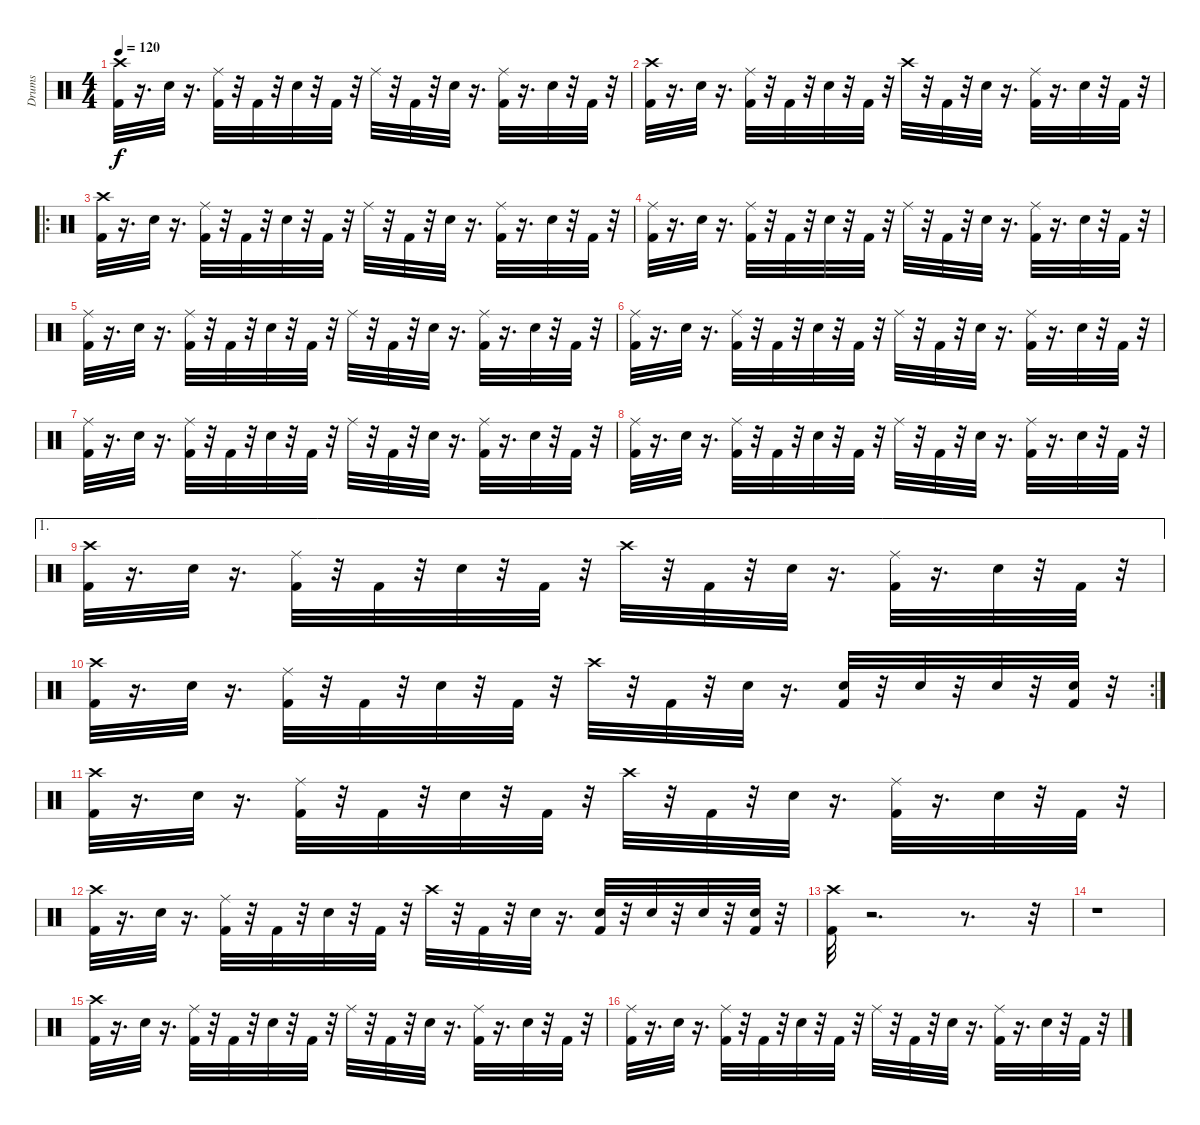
\track ("Drums" "Drums") {instrument percussion}
\staff {score}
\articulation defaults
\ts (4 4)
\tempo 120
\clef neutral
\ks c
("Crash high (hit)" "Kick (hit) 2").32{dy f} r.16{d} "Snare (hit) 2".32 r.16{d} ("Kick (hit) 2" "Ride (middle)").32 r.32 "Kick (hit) 2".32 r.32 "Snare (hit) 2".32 r.32 "Kick (hit) 2".32 r.32 "Ride (middle)".32 r.32 "Kick (hit) 2".32 r.32 "Snare (hit) 2".32 r.16{d} ("Kick (hit) 2" "Ride (middle)").32 r.16{d} "Snare (hit) 2".32 r.32 "Kick (hit) 2".32 r.32 |
("Crash high (hit)" "Kick (hit) 2").32 r.16{d} "Snare (hit) 2".32 r.16{d} ("Kick (hit) 2" "Ride (middle)").32 r.32 "Kick (hit) 2".32 r.32 "Snare (hit) 2".32 r.32 "Kick (hit) 2".32 r.32 "Crash high (hit)".32 r.32 "Kick (hit) 2".32 r.32 "Snare (hit) 2".32 r.16{d} ("Kick (hit) 2" "Ride (middle)").32 r.16{d} "Snare (hit) 2".32 r.32 "Kick (hit) 2".32 r.32 |
\ro
("Crash high (hit)" "Kick (hit) 2").32 r.16{d} "Snare (hit) 2".32 r.16{d} ("Kick (hit) 2" "Ride (middle)").32 r.32 "Kick (hit) 2".32 r.32 "Snare (hit) 2".32 r.32 "Kick (hit) 2".32 r.32 "Ride (middle)".32 r.32 "Kick (hit) 2".32 r.32 "Snare (hit) 2".32 r.16{d} ("Kick (hit) 2" "Ride (middle)").32 r.16{d} "Snare (hit) 2".32 r.32 "Kick (hit) 2".32 r.32 |
("Ride (middle)" "Kick (hit) 2").32 r.16{d} "Snare (hit) 2".32 r.16{d} ("Kick (hit) 2" "Ride (middle)").32 r.32 "Kick (hit) 2".32 r.32 "Snare (hit) 2".32 r.32 "Kick (hit) 2".32 r.32 "Ride (middle)".32 r.32 "Kick (hit) 2".32 r.32 "Snare (hit) 2".32 r.16{d} ("Kick (hit) 2" "Ride (middle)").32 r.16{d} "Snare (hit) 2".32 r.32 "Kick (hit) 2".32 r.32 |
("Ride (middle)" "Kick (hit) 2").32 r.16{d} "Snare (hit) 2".32 r.16{d} ("Kick (hit) 2" "Ride (middle)").32 r.32 "Kick (hit) 2".32 r.32 "Snare (hit) 2".32 r.32 "Kick (hit) 2".32 r.32 "Ride (middle)".32 r.32 "Kick (hit) 2".32 r.32 "Snare (hit) 2".32 r.16{d} ("Kick (hit) 2" "Ride (middle)").32 r.16{d} "Snare (hit) 2".32 r.32 "Kick (hit) 2".32 r.32 |
("Ride (middle)" "Kick (hit) 2").32 r.16{d} "Snare (hit) 2".32 r.16{d} ("Kick (hit) 2" "Ride (middle)").32 r.32 "Kick (hit) 2".32 r.32 "Snare (hit) 2".32 r.32 "Kick (hit) 2".32 r.32 "Ride (middle)".32 r.32 "Kick (hit) 2".32 r.32 "Snare (hit) 2".32 r.16{d} ("Kick (hit) 2" "Ride (middle)").32 r.16{d} "Snare (hit) 2".32 r.32 "Kick (hit) 2".32 r.32 |
("Ride (middle)" "Kick (hit) 2").32 r.16{d} "Snare (hit) 2".32 r.16{d} ("Kick (hit) 2" "Ride (middle)").32 r.32 "Kick (hit) 2".32 r.32 "Snare (hit) 2".32 r.32 "Kick (hit) 2".32 r.32 "Ride (middle)".32 r.32 "Kick (hit) 2".32 r.32 "Snare (hit) 2".32 r.16{d} ("Kick (hit) 2" "Ride (middle)").32 r.16{d} "Snare (hit) 2".32 r.32 "Kick (hit) 2".32 r.32 |
("Ride (middle)" "Kick (hit) 2").32 r.16{d} "Snare (hit) 2".32 r.16{d} ("Kick (hit) 2" "Ride (middle)").32 r.32 "Kick (hit) 2".32 r.32 "Snare (hit) 2".32 r.32 "Kick (hit) 2".32 r.32 "Ride (middle)".32 r.32 "Kick (hit) 2".32 r.32 "Snare (hit) 2".32 r.16{d} ("Kick (hit) 2" "Ride (middle)").32 r.16{d} "Snare (hit) 2".32 r.32 "Kick (hit) 2".32 r.32 |
\ae 1
("Crash high (hit)" "Kick (hit) 2").32 r.16{d} "Snare (hit) 2".32 r.16{d} ("Kick (hit) 2" "Ride (middle)").32 r.32 "Kick (hit) 2".32 r.32 "Snare (hit) 2".32 r.32 "Kick (hit) 2".32 r.32 "Crash high (hit)".32 r.32 "Kick (hit) 2".32 r.32 "Snare (hit) 2".32 r.16{d} ("Kick (hit) 2" "Ride (middle)").32 r.16{d} "Snare (hit) 2".32 r.32 "Kick (hit) 2".32 r.32 |
\rc 2
("Crash high (hit)" "Kick (hit) 2").32 r.16{d} "Snare (hit) 2".32 r.16{d} ("Kick (hit) 2" "Ride (middle)").32 r.32 "Kick (hit) 2".32 r.32 "Snare (hit) 2".32 r.32 "Kick (hit) 2".32 r.32 "Crash high (hit)".32 r.32 "Kick (hit) 2".32 r.32 "Snare (hit) 2".32 r.16{d} ("Snare (hit) 2" "Kick (hit) 2").32 r.32 "Snare (hit) 2".32 r.32 "Snare (hit) 2".32 r.32 ("Snare (hit) 2" "Kick (hit) 2").32 r.32 |
("Crash high (hit)" "Kick (hit) 2").32 r.16{d} "Snare (hit) 2".32 r.16{d} ("Kick (hit) 2" "Ride (middle)").32 r.32 "Kick (hit) 2".32 r.32 "Snare (hit) 2".32 r.32 "Kick (hit) 2".32 r.32 "Crash high (hit)".32 r.32 "Kick (hit) 2".32 r.32 "Snare (hit) 2".32 r.16{d} ("Kick (hit) 2" "Ride (middle)").32 r.16{d} "Snare (hit) 2".32 r.32 "Kick (hit) 2".32 r.32 |
("Crash high (hit)" "Kick (hit) 2").32 r.16{d} "Snare (hit) 2".32 r.16{d} ("Kick (hit) 2" "Ride (middle)").32 r.32 "Kick (hit) 2".32 r.32 "Snare (hit) 2".32 r.32 "Kick (hit) 2".32 r.32 "Crash high (hit)".32 r.32 "Kick (hit) 2".32 r.32 "Snare (hit) 2".32 r.16{d} ("Snare (hit) 2" "Kick (hit) 2").32 r.32 "Snare (hit) 2".32 r.32 "Snare (hit) 2".32 r.32 ("Snare (hit) 2" "Kick (hit) 2").32 r.32 |
("Crash high (hit)" "Kick (hit) 2").32 r.2{d} r.8{d} r.32 |
r.1 |
("Crash high (hit)" "Kick (hit) 2").32 r.16{d} "Snare (hit) 2".32 r.16{d} ("Kick (hit) 2" "Ride (middle)").32 r.32 "Kick (hit) 2".32 r.32 "Snare (hit) 2".32 r.32 "Kick (hit) 2".32 r.32 "Ride (middle)".32 r.32 "Kick (hit) 2".32 r.32 "Snare (hit) 2".32 r.16{d} ("Kick (hit) 2" "Ride (middle)").32 r.16{d} "Snare (hit) 2".32 r.32 "Kick (hit) 2".32 r.32 |
("Ride (middle)" "Kick (hit) 2").32 r.16{d} "Snare (hit) 2".32 r.16{d} ("Kick (hit) 2" "Ride (middle)").32 r.32 "Kick (hit) 2".32 r.32 "Snare (hit) 2".32 r.32 "Kick (hit) 2".32 r.32 "Ride (middle)".32 r.32 "Kick (hit) 2".32 r.32 "Snare (hit) 2".32 r.16{d} ("Kick (hit) 2" "Ride (middle)").32 r.16{d} "Snare (hit) 2".32 r.32 "Kick (hit) 2".32 r.32
